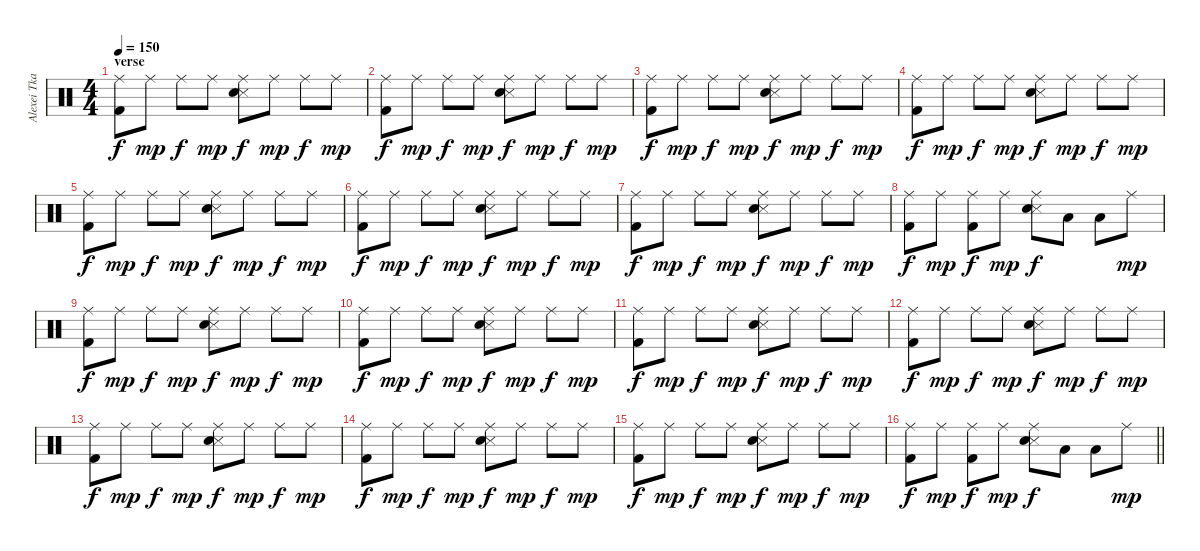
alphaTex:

\track ("Alexei Tkachevskiy " "Alexei Tka") {instrument percussion}
\staff {score}
\articulation defaults
\ts (4 4)
\section ("" "verse")
\tempo 150
\clef neutral
\ks c
("Ride (middle)" "Kick (hit) 2").8{dy f} "Ride (middle)".8{dy mp} "Ride (middle)".8{dy f} "Ride (middle)".8{dy mp} ("Ride (middle)" "Snare (side stick) 3" "Snare (hit) 2").8{dy f} "Ride (middle)".8{dy mp} "Ride (middle)".8{dy f} "Ride (middle)".8{dy mp} |
("Ride (middle)" "Kick (hit) 2").8{dy f} "Ride (middle)".8{dy mp} "Ride (middle)".8{dy f} "Ride (middle)".8{dy mp} ("Ride (middle)" "Snare (side stick) 3" "Snare (hit) 2").8{dy f} "Ride (middle)".8{dy mp} "Ride (middle)".8{dy f} "Ride (middle)".8{dy mp} |
("Ride (middle)" "Kick (hit) 2").8{dy f} "Ride (middle)".8{dy mp} "Ride (middle)".8{dy f} "Ride (middle)".8{dy mp} ("Ride (middle)" "Snare (side stick) 3" "Snare (hit) 2").8{dy f} "Ride (middle)".8{dy mp} "Ride (middle)".8{dy f} "Ride (middle)".8{dy mp} |
("Ride (middle)" "Kick (hit) 2").8{dy f} "Ride (middle)".8{dy mp} "Ride (middle)".8{dy f} "Ride (middle)".8{dy mp} ("Ride (middle)" "Snare (side stick) 3" "Snare (hit) 2").8{dy f} "Ride (middle)".8{dy mp} "Ride (middle)".8{dy f} "Ride (middle)".8{dy mp} |
("Ride (middle)" "Kick (hit) 2").8{dy f} "Ride (middle)".8{dy mp} "Ride (middle)".8{dy f} "Ride (middle)".8{dy mp} ("Ride (middle)" "Snare (side stick) 3" "Snare (hit) 2").8{dy f} "Ride (middle)".8{dy mp} "Ride (middle)".8{dy f} "Ride (middle)".8{dy mp} |
("Ride (middle)" "Kick (hit) 2").8{dy f} "Ride (middle)".8{dy mp} "Ride (middle)".8{dy f} "Ride (middle)".8{dy mp} ("Ride (middle)" "Snare (side stick) 3" "Snare (hit) 2").8{dy f} "Ride (middle)".8{dy mp} "Ride (middle)".8{dy f} "Ride (middle)".8{dy mp} |
("Ride (middle)" "Kick (hit) 2").8{dy f} "Ride (middle)".8{dy mp} "Ride (middle)".8{dy f} "Ride (middle)".8{dy mp} ("Ride (middle)" "Snare (side stick) 3" "Snare (hit) 2").8{dy f} "Ride (middle)".8{dy mp} "Ride (middle)".8{dy f} "Ride (middle)".8{dy mp} |
("Ride (middle)" "Kick (hit) 2").8{dy f} "Ride (middle)".8{dy mp} ("Ride (middle)" "Kick (hit) 2").8{dy f} "Ride (middle)".8{dy mp} ("Ride (middle)" "Snare (side stick) 3" "Snare (hit) 2").8{dy f} "Low Tom (hit)".8 "Low Tom (hit)".8 "Ride (middle)".8{dy mp} |
("Ride (middle)" "Kick (hit) 2").8{dy f} "Ride (middle)".8{dy mp} "Ride (middle)".8{dy f} "Ride (middle)".8{dy mp} ("Ride (middle)" "Snare (side stick) 3" "Snare (hit) 2").8{dy f} "Ride (middle)".8{dy mp} "Ride (middle)".8{dy f} "Ride (middle)".8{dy mp} |
("Ride (middle)" "Kick (hit) 2").8{dy f} "Ride (middle)".8{dy mp} "Ride (middle)".8{dy f} "Ride (middle)".8{dy mp} ("Ride (middle)" "Snare (side stick) 3" "Snare (hit) 2").8{dy f} "Ride (middle)".8{dy mp} "Ride (middle)".8{dy f} "Ride (middle)".8{dy mp} |
("Ride (middle)" "Kick (hit) 2").8{dy f} "Ride (middle)".8{dy mp} "Ride (middle)".8{dy f} "Ride (middle)".8{dy mp} ("Ride (middle)" "Snare (side stick) 3" "Snare (hit) 2").8{dy f} "Ride (middle)".8{dy mp} "Ride (middle)".8{dy f} "Ride (middle)".8{dy mp} |
("Ride (middle)" "Kick (hit) 2").8{dy f} "Ride (middle)".8{dy mp} "Ride (middle)".8{dy f} "Ride (middle)".8{dy mp} ("Ride (middle)" "Snare (side stick) 3" "Snare (hit) 2").8{dy f} "Ride (middle)".8{dy mp} "Ride (middle)".8{dy f} "Ride (middle)".8{dy mp} |
("Ride (middle)" "Kick (hit) 2").8{dy f} "Ride (middle)".8{dy mp} "Ride (middle)".8{dy f} "Ride (middle)".8{dy mp} ("Ride (middle)" "Snare (side stick) 3" "Snare (hit) 2").8{dy f} "Ride (middle)".8{dy mp} "Ride (middle)".8{dy f} "Ride (middle)".8{dy mp} |
("Ride (middle)" "Kick (hit) 2").8{dy f} "Ride (middle)".8{dy mp} "Ride (middle)".8{dy f} "Ride (middle)".8{dy mp} ("Ride (middle)" "Snare (side stick) 3" "Snare (hit) 2").8{dy f} "Ride (middle)".8{dy mp} "Ride (middle)".8{dy f} "Ride (middle)".8{dy mp} |
("Ride (middle)" "Kick (hit) 2").8{dy f} "Ride (middle)".8{dy mp} "Ride (middle)".8{dy f} "Ride (middle)".8{dy mp} ("Ride (middle)" "Snare (side stick) 3" "Snare (hit) 2").8{dy f} "Ride (middle)".8{dy mp} "Ride (middle)".8{dy f} "Ride (middle)".8{dy mp} |
\barLineRight lightlight
("Ride (middle)" "Kick (hit) 2").8{dy f} "Ride (middle)".8{dy mp} ("Ride (middle)" "Kick (hit) 2").8{dy f} "Ride (middle)".8{dy mp} ("Ride (middle)" "Snare (side stick) 3" "Snare (hit) 2").8{dy f} "Low Tom (hit)".8 "Low Tom (hit)".8 "Ride (middle)".8{dy mp}
